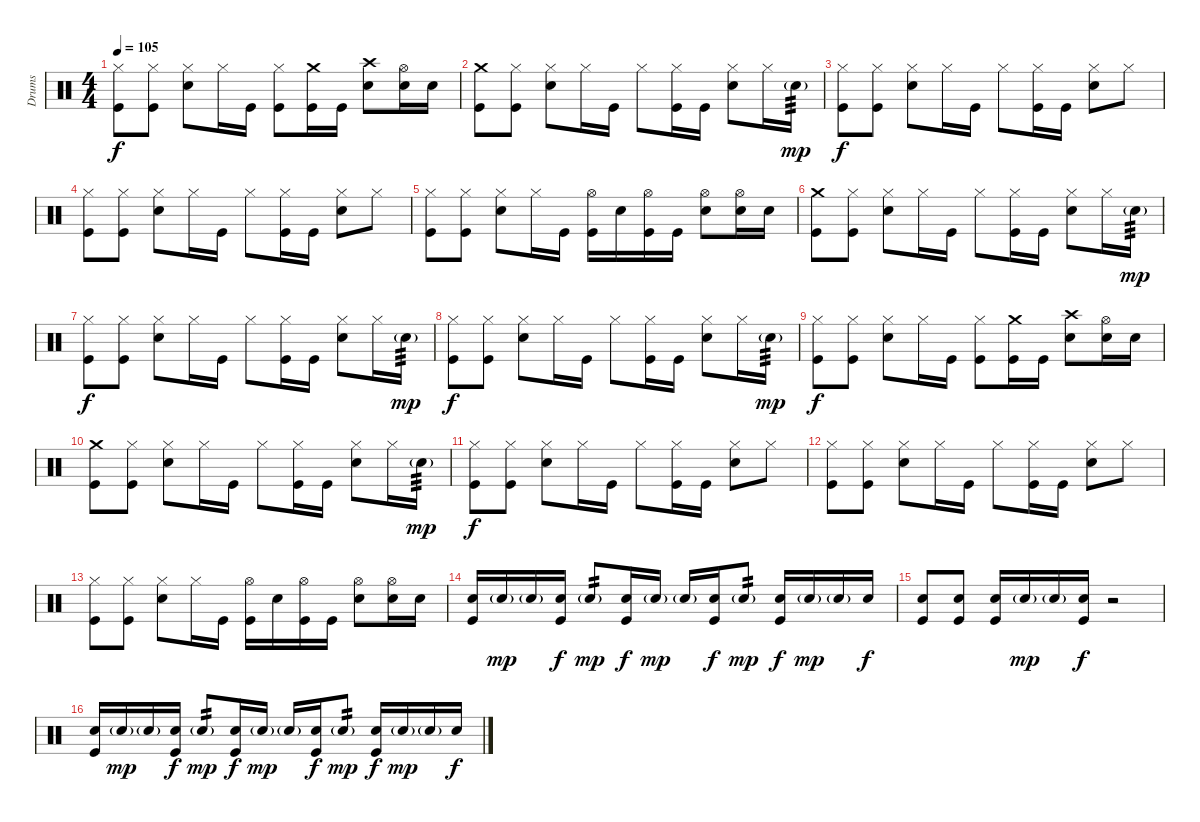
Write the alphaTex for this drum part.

\track ("Drums" "Drums") {instrument percussion}
\staff {score}
\articulation defaults
\ts (4 4)
\tempo 105
\clef neutral
\ks c
("Hi-Hat (closed)" "Kick (hit)").8{dy f} ("Hi-Hat (closed)" "Kick (hit)").8 ("Hi-Hat (closed)" "Electric Snare (hit)").8 "Hi-Hat (closed)".16 "Kick (hit)".16 ("Hi-Hat (closed)" "Kick (hit)").8 ("Crash medium (hit)" "Kick (hit)").16 "Kick (hit)".16 ("Crash high (hit)" "Electric Snare (hit)").8 ("Hi-Hat (open)" "Electric Snare (hit)").16 "Electric Snare (hit)".16 |
("Crash medium (hit)" "Kick (hit)").8 ("Hi-Hat (closed)" "Kick (hit)").8 ("Hi-Hat (closed)" "Electric Snare (hit)").8 "Hi-Hat (closed)".16 "Kick (hit)".16 "Hi-Hat (closed)".8 ("Hi-Hat (closed)" "Kick (hit)").16 "Kick (hit)".16 ("Hi-Hat (closed)" "Electric Snare (hit)").8 "Hi-Hat (closed)".16 "Electric Snare (hit)"{g}.16{tp 3 dy mp} |
("Hi-Hat (closed)" "Kick (hit)").8{dy f} ("Hi-Hat (closed)" "Kick (hit)").8 ("Hi-Hat (closed)" "Electric Snare (hit)").8 "Hi-Hat (closed)".16 "Kick (hit)".16 "Hi-Hat (closed)".8 ("Hi-Hat (closed)" "Kick (hit)").16 "Kick (hit)".16 ("Hi-Hat (closed)" "Electric Snare (hit)").8 "Hi-Hat (closed)".8 |
("Hi-Hat (closed)" "Kick (hit)").8 ("Hi-Hat (closed)" "Kick (hit)").8 ("Hi-Hat (closed)" "Electric Snare (hit)").8 "Hi-Hat (closed)".16 "Kick (hit)".16 "Hi-Hat (closed)".8 ("Hi-Hat (closed)" "Kick (hit)").16 "Kick (hit)".16 ("Hi-Hat (closed)" "Electric Snare (hit)").8 "Hi-Hat (closed)".8 |
("Hi-Hat (closed)" "Kick (hit)").8 ("Hi-Hat (closed)" "Kick (hit)").8 ("Hi-Hat (closed)" "Electric Snare (hit)").8 "Hi-Hat (closed)".16 "Kick (hit)".16 ("Hi-Hat (open)" "Kick (hit)").16 "Electric Snare (hit)".16 ("Hi-Hat (open)" "Kick (hit)").16 "Kick (hit)".16 ("Hi-Hat (open)" "Electric Snare (hit)").8 ("Hi-Hat (open)" "Electric Snare (hit)").16 "Electric Snare (hit)".16 |
("Crash medium (hit)" "Kick (hit)").8 ("Hi-Hat (closed)" "Kick (hit)").8 ("Hi-Hat (closed)" "Electric Snare (hit)").8 "Hi-Hat (closed)".16 "Kick (hit)".16 "Hi-Hat (closed)".8 ("Hi-Hat (closed)" "Kick (hit)").16 "Kick (hit)".16 ("Hi-Hat (closed)" "Electric Snare (hit)").8 "Hi-Hat (closed)".16 "Electric Snare (hit)"{g}.16{tp 3 dy mp} |
("Hi-Hat (closed)" "Kick (hit)").8{dy f} ("Hi-Hat (closed)" "Kick (hit)").8 ("Hi-Hat (closed)" "Electric Snare (hit)").8 "Hi-Hat (closed)".16 "Kick (hit)".16 "Hi-Hat (closed)".8 ("Hi-Hat (closed)" "Kick (hit)").16 "Kick (hit)".16 ("Hi-Hat (closed)" "Electric Snare (hit)").8 "Hi-Hat (closed)".16 "Electric Snare (hit)"{g}.16{tp 3 dy mp} |
("Hi-Hat (closed)" "Kick (hit)").8{dy f} ("Hi-Hat (closed)" "Kick (hit)").8 ("Hi-Hat (closed)" "Electric Snare (hit)").8 "Hi-Hat (closed)".16 "Kick (hit)".16 "Hi-Hat (closed)".8 ("Hi-Hat (closed)" "Kick (hit)").16 "Kick (hit)".16 ("Hi-Hat (closed)" "Electric Snare (hit)").8 "Hi-Hat (closed)".16 "Electric Snare (hit)"{g}.16{tp 3 dy mp} |
("Hi-Hat (closed)" "Kick (hit)").8{dy f} ("Hi-Hat (closed)" "Kick (hit)").8 ("Hi-Hat (closed)" "Electric Snare (hit)").8 "Hi-Hat (closed)".16 "Kick (hit)".16 ("Hi-Hat (closed)" "Kick (hit)").8 ("Crash medium (hit)" "Kick (hit)").16 "Kick (hit)".16 ("Crash high (hit)" "Electric Snare (hit)").8 ("Hi-Hat (open)" "Electric Snare (hit)").16 "Electric Snare (hit)".16 |
("Crash medium (hit)" "Kick (hit)").8 ("Hi-Hat (closed)" "Kick (hit)").8 ("Hi-Hat (closed)" "Electric Snare (hit)").8 "Hi-Hat (closed)".16 "Kick (hit)".16 "Hi-Hat (closed)".8 ("Hi-Hat (closed)" "Kick (hit)").16 "Kick (hit)".16 ("Hi-Hat (closed)" "Electric Snare (hit)").8 "Hi-Hat (closed)".16 "Electric Snare (hit)"{g}.16{tp 3 dy mp} |
("Hi-Hat (closed)" "Kick (hit)").8{dy f} ("Hi-Hat (closed)" "Kick (hit)").8 ("Hi-Hat (closed)" "Electric Snare (hit)").8 "Hi-Hat (closed)".16 "Kick (hit)".16 "Hi-Hat (closed)".8 ("Hi-Hat (closed)" "Kick (hit)").16 "Kick (hit)".16 ("Hi-Hat (closed)" "Electric Snare (hit)").8 "Hi-Hat (closed)".8 |
("Hi-Hat (closed)" "Kick (hit)").8 ("Hi-Hat (closed)" "Kick (hit)").8 ("Hi-Hat (closed)" "Electric Snare (hit)").8 "Hi-Hat (closed)".16 "Kick (hit)".16 "Hi-Hat (closed)".8 ("Hi-Hat (closed)" "Kick (hit)").16 "Kick (hit)".16 ("Hi-Hat (closed)" "Electric Snare (hit)").8 "Hi-Hat (closed)".8 |
("Hi-Hat (closed)" "Kick (hit)").8 ("Hi-Hat (closed)" "Kick (hit)").8 ("Hi-Hat (closed)" "Electric Snare (hit)").8 "Hi-Hat (closed)".16 "Kick (hit)".16 ("Hi-Hat (open)" "Kick (hit)").16 "Electric Snare (hit)".16 ("Hi-Hat (open)" "Kick (hit)").16 "Kick (hit)".16 ("Hi-Hat (open)" "Electric Snare (hit)").8 ("Hi-Hat (open)" "Electric Snare (hit)").16 "Electric Snare (hit)".16 |
("Electric Snare (hit)" "Kick (hit)").16 "Electric Snare (hit)"{g}.16{dy mp} "Electric Snare (hit)"{g}.16 ("Electric Snare (hit)" "Kick (hit)").16{dy f} "Electric Snare (hit)"{g}.8{tp 2 dy mp} ("Electric Snare (hit)" "Kick (hit)").16{dy f} "Electric Snare (hit)"{g}.16{dy mp} "Electric Snare (hit)"{g}.16 ("Electric Snare (hit)" "Kick (hit)").16{dy f} "Electric Snare (hit)"{g}.8{tp 2 dy mp} ("Electric Snare (hit)" "Kick (hit)").16{dy f} "Electric Snare (hit)"{g}.16{dy mp} "Electric Snare (hit)"{g}.16 "Electric Snare (hit)".16{dy f} |
("Electric Snare (hit)" "Kick (hit)").8 ("Electric Snare (hit)" "Kick (hit)").8 ("Electric Snare (hit)" "Kick (hit)").16 "Electric Snare (hit)"{g}.16{dy mp} "Electric Snare (hit)"{g}.16 ("Electric Snare (hit)" "Kick (hit)").16{dy f} r.2 |
("Electric Snare (hit)" "Kick (hit)").16 "Electric Snare (hit)"{g}.16{dy mp} "Electric Snare (hit)"{g}.16 ("Electric Snare (hit)" "Kick (hit)").16{dy f} "Electric Snare (hit)"{g}.8{tp 2 dy mp} ("Electric Snare (hit)" "Kick (hit)").16{dy f} "Electric Snare (hit)"{g}.16{dy mp} "Electric Snare (hit)"{g}.16 ("Electric Snare (hit)" "Kick (hit)").16{dy f} "Electric Snare (hit)"{g}.8{tp 2 dy mp} ("Electric Snare (hit)" "Kick (hit)").16{dy f} "Electric Snare (hit)"{g}.16{dy mp} "Electric Snare (hit)"{g}.16 "Electric Snare (hit)".16{dy f}
